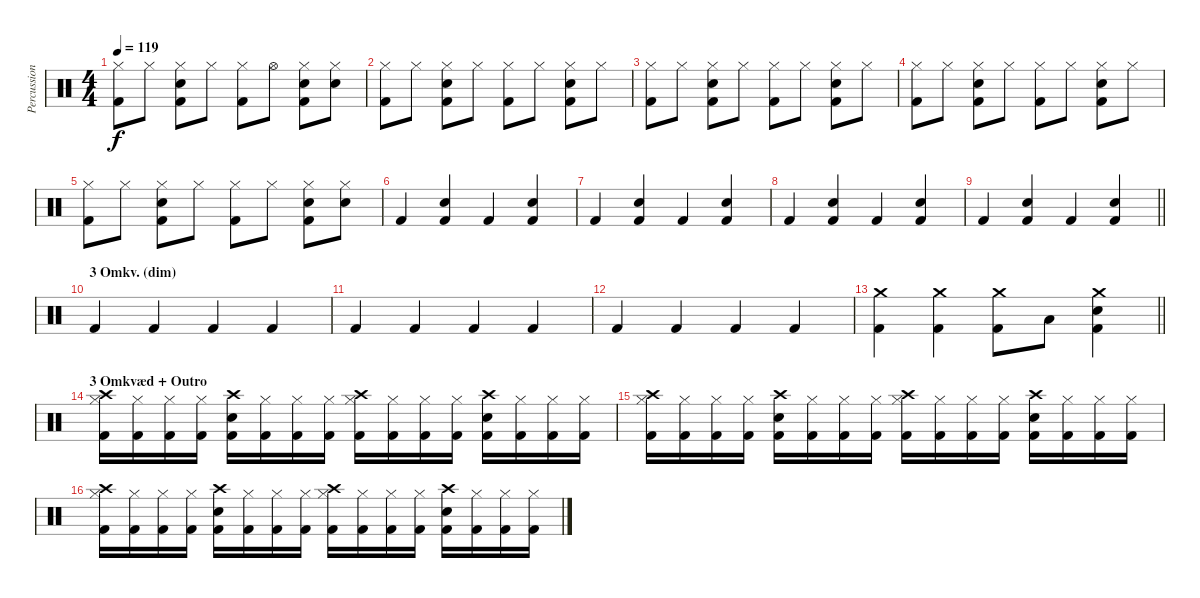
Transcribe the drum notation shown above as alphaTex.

\track ("Percussion" "Percussion") {instrument percussion}
\staff {score}
\articulation defaults
\ts (4 4)
\tempo 119
\clef neutral
\ks c
("Hi-Hat (closed)" "Kick (hit) 2").8{dy f} "Hi-Hat (closed)".8 ("Hi-Hat (closed)" "Snare (hit) 2" "Kick (hit) 2").8 "Hi-Hat (closed)".8 ("Hi-Hat (closed)" "Kick (hit) 2").8 "Hi-Hat (open)".8 ("Hi-Hat (closed)" "Snare (hit) 2" "Kick (hit) 2").8 ("Hi-Hat (closed)" "Snare (hit) 2").8 |
("Hi-Hat (closed)" "Kick (hit) 2").8 "Hi-Hat (closed)".8 ("Hi-Hat (closed)" "Snare (hit) 2" "Kick (hit) 2").8 "Hi-Hat (closed)".8 ("Hi-Hat (closed)" "Kick (hit) 2").8 "Hi-Hat (closed)".8 ("Hi-Hat (closed)" "Snare (hit) 2" "Kick (hit) 2").8 "Hi-Hat (closed)".8 |
("Hi-Hat (closed)" "Kick (hit) 2").8 "Hi-Hat (closed)".8 ("Hi-Hat (closed)" "Snare (hit) 2" "Kick (hit) 2").8 "Hi-Hat (closed)".8 ("Hi-Hat (closed)" "Kick (hit) 2").8 "Hi-Hat (closed)".8 ("Hi-Hat (closed)" "Snare (hit) 2" "Kick (hit) 2").8 "Hi-Hat (closed)".8 |
("Hi-Hat (closed)" "Kick (hit) 2").8 "Hi-Hat (closed)".8 ("Hi-Hat (closed)" "Snare (hit) 2" "Kick (hit) 2").8 "Hi-Hat (closed)".8 ("Hi-Hat (closed)" "Kick (hit) 2").8 "Hi-Hat (closed)".8 ("Hi-Hat (closed)" "Snare (hit) 2" "Kick (hit) 2").8 "Hi-Hat (closed)".8 |
("Hi-Hat (closed)" "Kick (hit) 2").8 "Hi-Hat (closed)".8 ("Hi-Hat (closed)" "Snare (hit) 2" "Kick (hit) 2").8 "Hi-Hat (closed)".8 ("Hi-Hat (closed)" "Kick (hit) 2").8 "Hi-Hat (closed)".8 ("Hi-Hat (closed)" "Snare (hit) 2" "Kick (hit) 2").8 ("Hi-Hat (closed)" "Snare (hit) 2").8 |
"Kick (hit) 2".4 ("Snare (hit) 2" "Kick (hit) 2").4 "Kick (hit) 2".4 ("Snare (hit) 2" "Kick (hit) 2").4 |
"Kick (hit) 2".4 ("Snare (hit) 2" "Kick (hit) 2").4 "Kick (hit) 2".4 ("Snare (hit) 2" "Kick (hit) 2").4 |
"Kick (hit) 2".4 ("Snare (hit) 2" "Kick (hit) 2").4 "Kick (hit) 2".4 ("Snare (hit) 2" "Kick (hit) 2").4 |
\barLineRight lightlight "Kick (hit) 2".4
("Snare (hit) 2" "Kick (hit) 2").4 "Kick (hit) 2".4 ("Snare (hit) 2" "Kick (hit) 2").4 |
\section ("" "3 Omkv. (dim)")
"Kick (hit) 2".4 "Kick (hit) 2".4 "Kick (hit) 2".4 "Kick (hit) 2".4 |
"Kick (hit) 2".4 "Kick (hit) 2".4 "Kick (hit) 2".4 "Kick (hit) 2".4 |
"Kick (hit) 2".4 "Kick (hit) 2".4 "Kick (hit) 2".4 "Kick (hit) 2".4 |
\barLineRight lightlight
("Crash medium (hit)" "Kick (hit) 2").4 ("Crash medium (hit)" "Kick (hit) 2").4 ("Crash medium (hit)" "Kick (hit) 2").8 "Low Tom (hit)".8 ("Crash medium (hit)" "Snare (hit) 2" "Kick (hit) 2").4 |
\section ("" "3 Omkvæd + Outro")
("Crash high (hit)" "Hi-Hat (closed)" "Kick (hit) 2").16 ("Hi-Hat (closed)" "Kick (hit) 2").16 ("Hi-Hat (closed)" "Kick (hit) 2").16 ("Hi-Hat (closed)" "Kick (hit) 2").16 ("Crash high (hit)" "Snare (hit) 2" "Kick (hit) 2").16 ("Hi-Hat (closed)" "Kick (hit) 2").16 ("Hi-Hat (closed)" "Kick (hit) 2").16 ("Hi-Hat (closed)" "Kick (hit) 2").16 ("Crash high (hit)" "Hi-Hat (closed)" "Kick (hit) 2").16 ("Hi-Hat (closed)" "Kick (hit) 2").16 ("Hi-Hat (closed)" "Kick (hit) 2").16 ("Hi-Hat (closed)" "Kick (hit) 2").16 ("Crash high (hit)" "Snare (hit) 2" "Kick (hit) 2").16 ("Hi-Hat (closed)" "Kick (hit) 2").16 ("Hi-Hat (closed)" "Kick (hit) 2").16 ("Hi-Hat (closed)" "Kick (hit) 2").16 |
("Crash high (hit)" "Hi-Hat (closed)" "Kick (hit) 2").16 ("Hi-Hat (closed)" "Kick (hit) 2").16 ("Hi-Hat (closed)" "Kick (hit) 2").16 ("Hi-Hat (closed)" "Kick (hit) 2").16 ("Crash high (hit)" "Snare (hit) 2" "Kick (hit) 2").16 ("Hi-Hat (closed)" "Kick (hit) 2").16 ("Hi-Hat (closed)" "Kick (hit) 2").16 ("Hi-Hat (closed)" "Kick (hit) 2").16 ("Crash high (hit)" "Hi-Hat (closed)" "Kick (hit) 2").16 ("Hi-Hat (closed)" "Kick (hit) 2").16 ("Hi-Hat (closed)" "Kick (hit) 2").16 ("Hi-Hat (closed)" "Kick (hit) 2").16 ("Crash high (hit)" "Snare (hit) 2" "Kick (hit) 2").16 ("Hi-Hat (closed)" "Kick (hit) 2").16 ("Hi-Hat (closed)" "Kick (hit) 2").16 ("Hi-Hat (closed)" "Kick (hit) 2").16 |
("Crash high (hit)" "Hi-Hat (closed)" "Kick (hit) 2").16 ("Hi-Hat (closed)" "Kick (hit) 2").16 ("Hi-Hat (closed)" "Kick (hit) 2").16 ("Hi-Hat (closed)" "Kick (hit) 2").16 ("Crash high (hit)" "Snare (hit) 2" "Kick (hit) 2").16 ("Hi-Hat (closed)" "Kick (hit) 2").16 ("Hi-Hat (closed)" "Kick (hit) 2").16 ("Hi-Hat (closed)" "Kick (hit) 2").16 ("Crash high (hit)" "Hi-Hat (closed)" "Kick (hit) 2").16 ("Hi-Hat (closed)" "Kick (hit) 2").16 ("Hi-Hat (closed)" "Kick (hit) 2").16 ("Hi-Hat (closed)" "Kick (hit) 2").16 ("Crash high (hit)" "Snare (hit) 2" "Kick (hit) 2").16 ("Hi-Hat (closed)" "Kick (hit) 2").16 ("Hi-Hat (closed)" "Kick (hit) 2").16 ("Hi-Hat (closed)" "Kick (hit) 2").16
